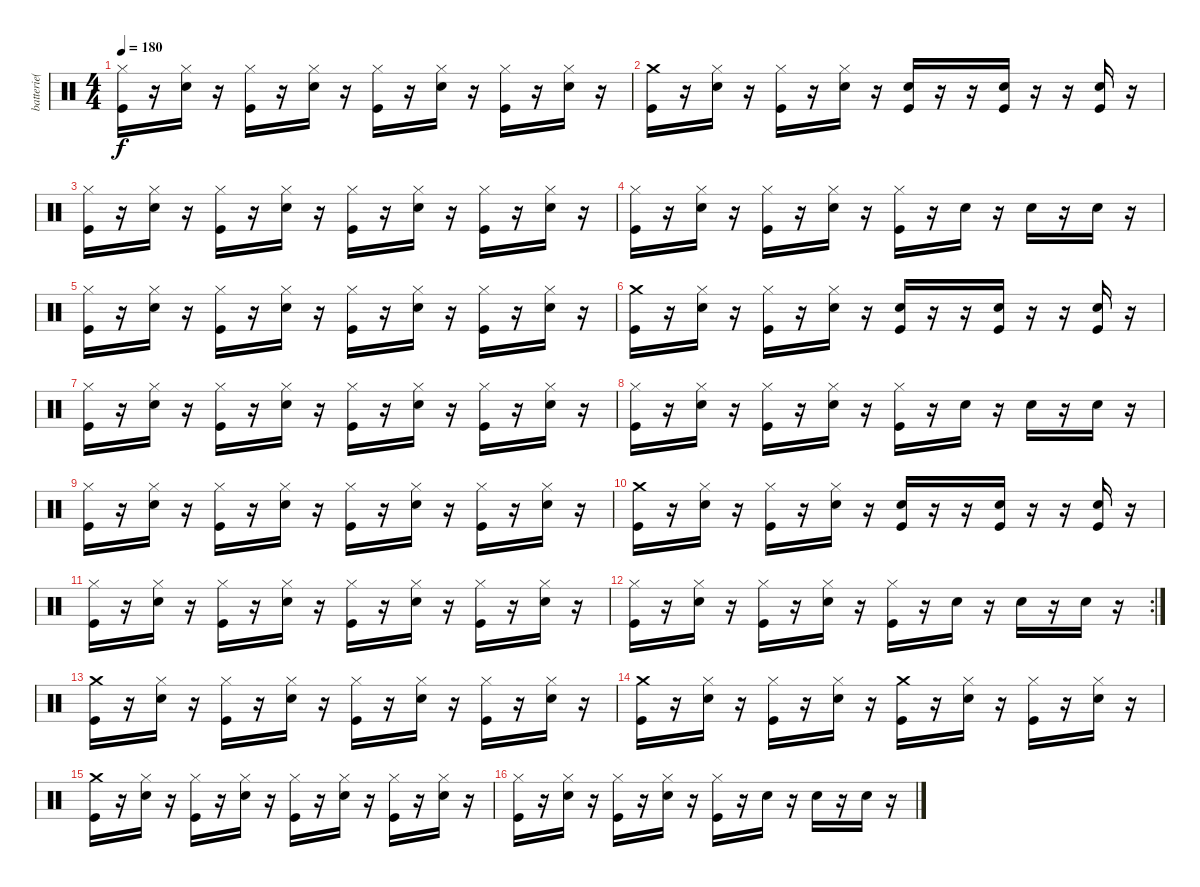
\track ("batterie( Shawn )" "batterie( ") {instrument percussion}
\staff {score}
\articulation defaults
\ts (4 4)
\tempo 180
\clef neutral
\ks c
("Hi-Hat (closed)" "Kick (hit)").16{dy f} r.16 ("Hi-Hat (closed)" "Snare (hit) 2").16 r.16 ("Hi-Hat (closed)" "Kick (hit)").16 r.16 ("Hi-Hat (closed)" "Snare (hit) 2").16 r.16 ("Hi-Hat (closed)" "Kick (hit)").16 r.16 ("Hi-Hat (closed)" "Snare (hit) 2").16 r.16 ("Hi-Hat (closed)" "Kick (hit)").16 r.16 ("Hi-Hat (closed)" "Snare (hit) 2").16 r.16 |
("Crash medium (hit)" "Kick (hit)").16 r.16 ("Hi-Hat (closed)" "Snare (hit) 2").16 r.16 ("Hi-Hat (closed)" "Kick (hit)").16 r.16 ("Hi-Hat (closed)" "Snare (hit) 2").16 r.16 ("Snare (hit) 2" "Kick (hit)").16 r.16 r.16 ("Snare (hit) 2" "Kick (hit)").16 r.16 r.16 ("Snare (hit) 2" "Kick (hit)").16 r.16 |
("Hi-Hat (closed)" "Kick (hit)").16 r.16 ("Hi-Hat (closed)" "Snare (hit) 2").16 r.16 ("Hi-Hat (closed)" "Kick (hit)").16 r.16 ("Hi-Hat (closed)" "Snare (hit) 2").16 r.16 ("Hi-Hat (closed)" "Kick (hit)").16 r.16 ("Hi-Hat (closed)" "Snare (hit) 2").16 r.16 ("Hi-Hat (closed)" "Kick (hit)").16 r.16 ("Hi-Hat (closed)" "Snare (hit) 2").16 r.16 |
("Hi-Hat (closed)" "Kick (hit)").16 r.16 ("Hi-Hat (closed)" "Snare (hit) 2").16 r.16 ("Hi-Hat (closed)" "Kick (hit)").16 r.16 ("Hi-Hat (closed)" "Snare (hit) 2").16 r.16 ("Hi-Hat (closed)" "Kick (hit)").16 r.16 "Snare (hit) 2".16 r.16 "Snare (hit) 2".16 r.16 "Snare (hit) 2".16 r.16 |
("Hi-Hat (closed)" "Kick (hit)").16 r.16 ("Hi-Hat (closed)" "Snare (hit) 2").16 r.16 ("Hi-Hat (closed)" "Kick (hit)").16 r.16 ("Hi-Hat (closed)" "Snare (hit) 2").16 r.16 ("Hi-Hat (closed)" "Kick (hit)").16 r.16 ("Hi-Hat (closed)" "Snare (hit) 2").16 r.16 ("Hi-Hat (closed)" "Kick (hit)").16 r.16 ("Hi-Hat (closed)" "Snare (hit) 2").16 r.16 |
("Crash medium (hit)" "Kick (hit)").16 r.16 ("Hi-Hat (closed)" "Snare (hit) 2").16 r.16 ("Hi-Hat (closed)" "Kick (hit)").16 r.16 ("Hi-Hat (closed)" "Snare (hit) 2").16 r.16 ("Snare (hit) 2" "Kick (hit)").16 r.16 r.16 ("Snare (hit) 2" "Kick (hit)").16 r.16 r.16 ("Snare (hit) 2" "Kick (hit)").16 r.16 |
("Hi-Hat (closed)" "Kick (hit)").16 r.16 ("Hi-Hat (closed)" "Snare (hit) 2").16 r.16 ("Hi-Hat (closed)" "Kick (hit)").16 r.16 ("Hi-Hat (closed)" "Snare (hit) 2").16 r.16 ("Hi-Hat (closed)" "Kick (hit)").16 r.16 ("Hi-Hat (closed)" "Snare (hit) 2").16 r.16 ("Hi-Hat (closed)" "Kick (hit)").16 r.16 ("Hi-Hat (closed)" "Snare (hit) 2").16 r.16 |
("Hi-Hat (closed)" "Kick (hit)").16 r.16 ("Hi-Hat (closed)" "Snare (hit) 2").16 r.16 ("Hi-Hat (closed)" "Kick (hit)").16 r.16 ("Hi-Hat (closed)" "Snare (hit) 2").16 r.16 ("Hi-Hat (closed)" "Kick (hit)").16 r.16 "Snare (hit) 2".16 r.16 "Snare (hit) 2".16 r.16 "Snare (hit) 2".16 r.16 |
("Hi-Hat (closed)" "Kick (hit)").16 r.16 ("Hi-Hat (closed)" "Snare (hit) 2").16 r.16 ("Hi-Hat (closed)" "Kick (hit)").16 r.16 ("Hi-Hat (closed)" "Snare (hit) 2").16 r.16 ("Hi-Hat (closed)" "Kick (hit)").16 r.16 ("Hi-Hat (closed)" "Snare (hit) 2").16 r.16 ("Hi-Hat (closed)" "Kick (hit)").16 r.16 ("Hi-Hat (closed)" "Snare (hit) 2").16 r.16 |
("Crash medium (hit)" "Kick (hit)").16 r.16 ("Hi-Hat (closed)" "Snare (hit) 2").16 r.16 ("Hi-Hat (closed)" "Kick (hit)").16 r.16 ("Hi-Hat (closed)" "Snare (hit) 2").16 r.16 ("Snare (hit) 2" "Kick (hit)").16 r.16 r.16 ("Snare (hit) 2" "Kick (hit)").16 r.16 r.16 ("Snare (hit) 2" "Kick (hit)").16 r.16 |
("Hi-Hat (closed)" "Kick (hit)").16 r.16 ("Hi-Hat (closed)" "Snare (hit) 2").16 r.16 ("Hi-Hat (closed)" "Kick (hit)").16 r.16 ("Hi-Hat (closed)" "Snare (hit) 2").16 r.16 ("Hi-Hat (closed)" "Kick (hit)").16 r.16 ("Hi-Hat (closed)" "Snare (hit) 2").16 r.16 ("Hi-Hat (closed)" "Kick (hit)").16 r.16 ("Hi-Hat (closed)" "Snare (hit) 2").16 r.16 |
\rc 2
("Hi-Hat (closed)" "Kick (hit)").16 r.16 ("Hi-Hat (closed)" "Snare (hit) 2").16 r.16 ("Hi-Hat (closed)" "Kick (hit)").16 r.16 ("Hi-Hat (closed)" "Snare (hit) 2").16 r.16 ("Hi-Hat (closed)" "Kick (hit)").16 r.16 "Snare (hit) 2".16 r.16 "Snare (hit) 2".16 r.16 "Snare (hit) 2".16 r.16 |
("Crash medium (hit)" "Kick (hit)").16 r.16 ("Hi-Hat (closed)" "Snare (hit) 2").16 r.16 ("Hi-Hat (closed)" "Kick (hit)").16 r.16 ("Hi-Hat (closed)" "Snare (hit) 2").16 r.16 ("Hi-Hat (closed)" "Kick (hit)").16 r.16 ("Hi-Hat (closed)" "Snare (hit) 2").16 r.16 ("Hi-Hat (closed)" "Kick (hit)").16 r.16 ("Hi-Hat (closed)" "Snare (hit) 2").16 r.16 |
("Crash medium (hit)" "Kick (hit)").16 r.16 ("Hi-Hat (closed)" "Snare (hit) 2").16 r.16 ("Hi-Hat (closed)" "Kick (hit)").16 r.16 ("Hi-Hat (closed)" "Snare (hit) 2").16 r.16 ("Crash medium (hit)" "Kick (hit)").16 r.16 ("Hi-Hat (closed)" "Snare (hit) 2").16 r.16 ("Hi-Hat (closed)" "Kick (hit)").16 r.16 ("Hi-Hat (closed)" "Snare (hit) 2").16 r.16 |
("Crash medium (hit)" "Kick (hit)").16 r.16 ("Hi-Hat (closed)" "Snare (hit) 2").16 r.16 ("Hi-Hat (closed)" "Kick (hit)").16 r.16 ("Hi-Hat (closed)" "Snare (hit) 2").16 r.16 ("Hi-Hat (closed)" "Kick (hit)").16 r.16 ("Hi-Hat (closed)" "Snare (hit) 2").16 r.16 ("Hi-Hat (closed)" "Kick (hit)").16 r.16 ("Hi-Hat (closed)" "Snare (hit) 2").16 r.16 |
("Hi-Hat (closed)" "Kick (hit)").16 r.16 ("Hi-Hat (closed)" "Snare (hit) 2").16 r.16 ("Hi-Hat (closed)" "Kick (hit)").16 r.16 ("Hi-Hat (closed)" "Snare (hit) 2").16 r.16 ("Hi-Hat (closed)" "Kick (hit)").16 r.16 "Snare (hit) 2".16 r.16 "Snare (hit) 2".16 r.16 "Snare (hit) 2".16 r.16
